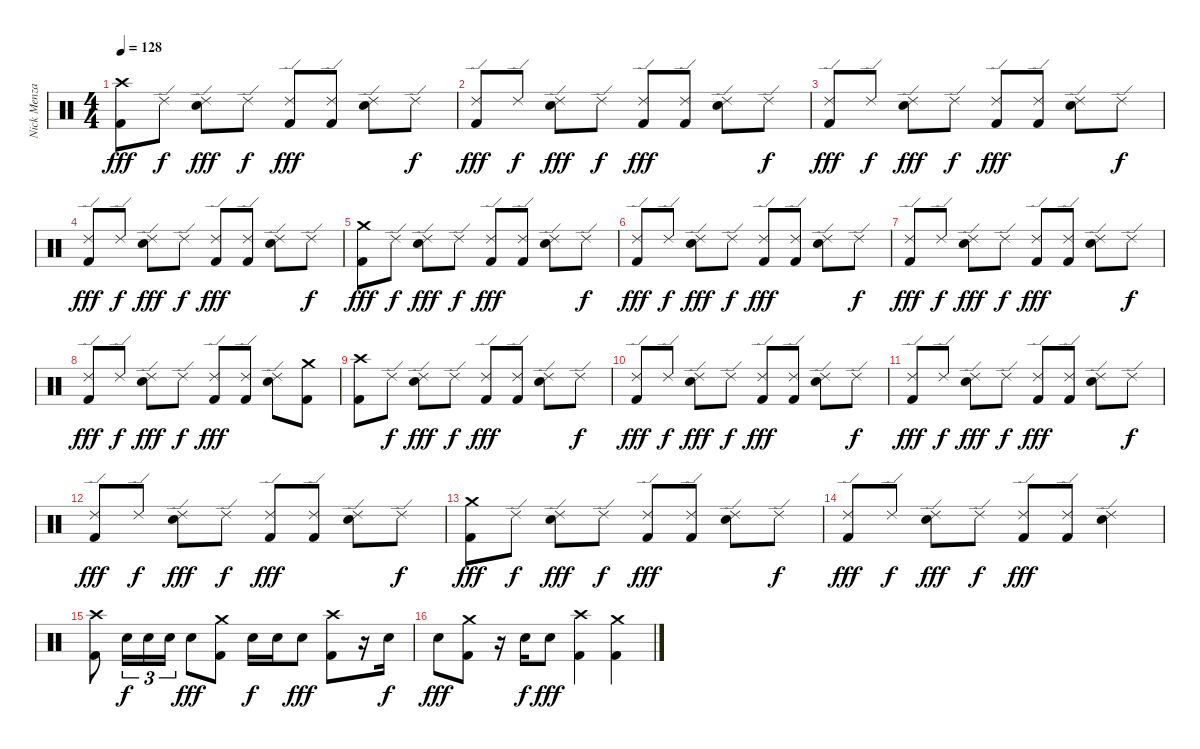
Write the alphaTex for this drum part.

\track ("Nick Menza" "Nick Menza") {instrument percussion}
\staff {score}
\articulation defaults
\ts (4 4)
\tempo 128
\clef neutral
\ks c
("Crash high (hit)" "Kick (hit) 2").8{dy fff} "Ride (edge) 2".8{dy f} ("Ride (edge) 2" "Electric Snare (hit)").8{dy fff} "Ride (edge) 2".8{dy f} ("Ride (edge) 2" "Kick (hit) 2").8{dy fff} ("Ride (edge) 2" "Kick (hit) 2").8 ("Ride (edge) 2" "Electric Snare (hit)").8 "Ride (edge) 2".8{dy f} |
("Ride (edge) 2" "Kick (hit) 2").8{dy fff} "Ride (edge) 2".8{dy f} ("Ride (edge) 2" "Electric Snare (hit)").8{dy fff} "Ride (edge) 2".8{dy f} ("Ride (edge) 2" "Kick (hit) 2").8{dy fff} ("Ride (edge) 2" "Kick (hit) 2").8 ("Ride (edge) 2" "Electric Snare (hit)").8 "Ride (edge) 2".8{dy f} |
("Ride (edge) 2" "Kick (hit) 2").8{dy fff} "Ride (edge) 2".8{dy f} ("Ride (edge) 2" "Electric Snare (hit)").8{dy fff} "Ride (edge) 2".8{dy f} ("Ride (edge) 2" "Kick (hit) 2").8{dy fff} ("Ride (edge) 2" "Kick (hit) 2").8 ("Ride (edge) 2" "Electric Snare (hit)").8 "Ride (edge) 2".8{dy f} |
("Ride (edge) 2" "Kick (hit) 2").8{dy fff} "Ride (edge) 2".8{dy f} ("Ride (edge) 2" "Electric Snare (hit)").8{dy fff} "Ride (edge) 2".8{dy f} ("Ride (edge) 2" "Kick (hit) 2").8{dy fff} ("Ride (edge) 2" "Kick (hit) 2").8 ("Ride (edge) 2" "Electric Snare (hit)").8 "Ride (edge) 2".8{dy f} |
("Crash medium (hit)" "Kick (hit) 2").8{dy fff} "Ride (edge) 2".8{dy f} ("Ride (edge) 2" "Electric Snare (hit)").8{dy fff} "Ride (edge) 2".8{dy f} ("Ride (edge) 2" "Kick (hit) 2").8{dy fff} ("Ride (edge) 2" "Kick (hit) 2").8 ("Ride (edge) 2" "Electric Snare (hit)").8 "Ride (edge) 2".8{dy f} |
("Ride (edge) 2" "Kick (hit) 2").8{dy fff} "Ride (edge) 2".8{dy f} ("Ride (edge) 2" "Electric Snare (hit)").8{dy fff} "Ride (edge) 2".8{dy f} ("Ride (edge) 2" "Kick (hit) 2").8{dy fff} ("Ride (edge) 2" "Kick (hit) 2").8 ("Ride (edge) 2" "Electric Snare (hit)").8 "Ride (edge) 2".8{dy f} |
("Ride (edge) 2" "Kick (hit) 2").8{dy fff} "Ride (edge) 2".8{dy f} ("Ride (edge) 2" "Electric Snare (hit)").8{dy fff} "Ride (edge) 2".8{dy f} ("Ride (edge) 2" "Kick (hit) 2").8{dy fff} ("Ride (edge) 2" "Kick (hit) 2").8 ("Ride (edge) 2" "Electric Snare (hit)").8 "Ride (edge) 2".8{dy f} |
("Ride (edge) 2" "Kick (hit) 2").8{dy fff} "Ride (edge) 2".8{dy f} ("Ride (edge) 2" "Electric Snare (hit)").8{dy fff} "Ride (edge) 2".8{dy f} ("Ride (edge) 2" "Kick (hit) 2").8{dy fff} ("Ride (edge) 2" "Kick (hit) 2").8 ("Ride (edge) 2" "Electric Snare (hit)").8 ("Crash medium (hit)" "Kick (hit) 2").8 |
("Crash high (hit)" "Kick (hit) 2").8 "Ride (edge) 2".8{dy f} ("Ride (edge) 2" "Electric Snare (hit)").8{dy fff} "Ride (edge) 2".8{dy f} ("Ride (edge) 2" "Kick (hit) 2").8{dy fff} ("Ride (edge) 2" "Kick (hit) 2").8 ("Ride (edge) 2" "Electric Snare (hit)").8 "Ride (edge) 2".8{dy f} |
("Ride (edge) 2" "Kick (hit) 2").8{dy fff} "Ride (edge) 2".8{dy f} ("Ride (edge) 2" "Electric Snare (hit)").8{dy fff} "Ride (edge) 2".8{dy f} ("Ride (edge) 2" "Kick (hit) 2").8{dy fff} ("Ride (edge) 2" "Kick (hit) 2").8 ("Ride (edge) 2" "Electric Snare (hit)").8 "Ride (edge) 2".8{dy f} |
("Ride (edge) 2" "Kick (hit) 2").8{dy fff} "Ride (edge) 2".8{dy f} ("Ride (edge) 2" "Electric Snare (hit)").8{dy fff} "Ride (edge) 2".8{dy f} ("Ride (edge) 2" "Kick (hit) 2").8{dy fff} ("Ride (edge) 2" "Kick (hit) 2").8 ("Ride (edge) 2" "Electric Snare (hit)").8 "Ride (edge) 2".8{dy f} |
("Ride (edge) 2" "Kick (hit) 2").8{dy fff} "Ride (edge) 2".8{dy f} ("Ride (edge) 2" "Electric Snare (hit)").8{dy fff} "Ride (edge) 2".8{dy f} ("Ride (edge) 2" "Kick (hit) 2").8{dy fff} ("Ride (edge) 2" "Kick (hit) 2").8 ("Ride (edge) 2" "Electric Snare (hit)").8 "Ride (edge) 2".8{dy f} |
("Crash medium (hit)" "Kick (hit) 2").8{dy fff} "Ride (edge) 2".8{dy f} ("Ride (edge) 2" "Electric Snare (hit)").8{dy fff} "Ride (edge) 2".8{dy f} ("Ride (edge) 2" "Kick (hit) 2").8{dy fff} ("Ride (edge) 2" "Kick (hit) 2").8 ("Ride (edge) 2" "Electric Snare (hit)").8 "Ride (edge) 2".8{dy f} |
("Ride (edge) 2" "Kick (hit) 2").8{dy fff} "Ride (edge) 2".8{dy f} ("Ride (edge) 2" "Electric Snare (hit)").8{dy fff} "Ride (edge) 2".8{dy f} ("Ride (edge) 2" "Kick (hit) 2").8{dy fff} ("Ride (edge) 2" "Kick (hit) 2").8 ("Ride (edge) 2" "Electric Snare (hit)").4 |
("Crash high (hit)" "Kick (hit) 2").8 "Electric Snare (hit)".16{tu (3 2) dy f} "Electric Snare (hit)".16{tu (3 2)} "Electric Snare (hit)".16{tu (3 2)} "Electric Snare (hit)".8{dy fff} ("Crash medium (hit)" "Kick (hit) 2").8 "Electric Snare (hit)".16{dy f} "Electric Snare (hit)".16 "Electric Snare (hit)".8{dy fff} ("Crash high (hit)" "Kick (hit) 2").8 r.16 "Electric Snare (hit)".16{dy f} |
"Electric Snare (hit)".8{dy fff} ("Crash medium (hit)" "Kick (hit) 2").8 r.16 "Electric Snare (hit)".16{dy f} "Electric Snare (hit)".8{dy fff} ("Crash high (hit)" "Kick (hit) 2").4 ("Crash medium (hit)" "Kick (hit) 2").4
